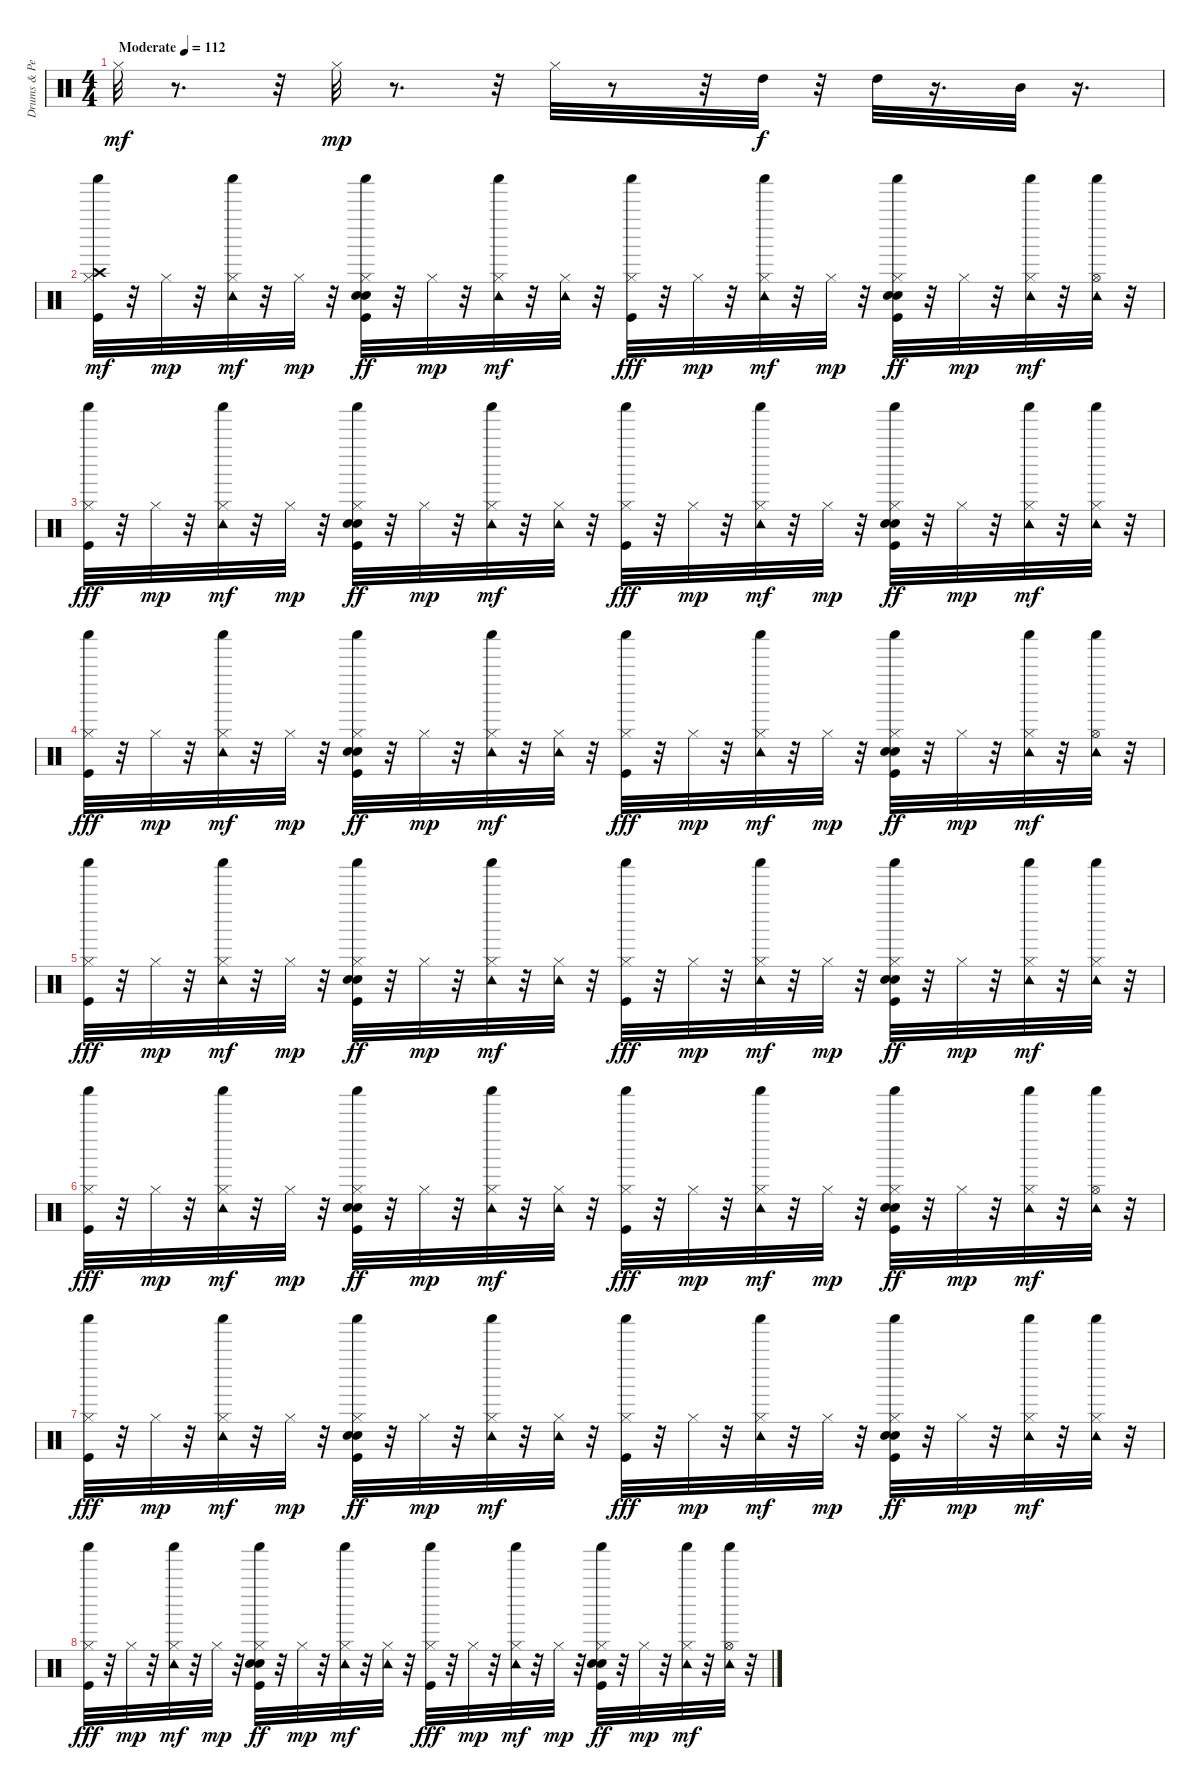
\track ("Drums & Percussion" "Drums & Pe") {instrument percussion}
\staff {score}
\articulation defaults
\ts (4 4)
\tempo (112 "Moderate")
\clef neutral
\ks c "Hi-Hat (closed)".32{dy mf}
r.8{d} r.32 "Hi-Hat (closed)".32{dy mp} r.8{d} r.32 "Hi-Hat (closed)".32 r.8 r.32 "High Tom (hit)".32{dy f} r.32 "High Tom (hit)".32 r.16{d} "Mid Tom (hit)".32 r.16{d} |
("Shaker (hit)" "Hi-Hat (closed)" "Crash high (hit)" "Kick (hit)").32{dy mf} r.32 "Hi-Hat (closed)".32{dy mp} r.32 ("Shaker (hit)" "Hi-Hat (closed)" "Tambourine (hit)").32{dy mf} r.32 "Hi-Hat (closed)".32{dy mp} r.32 ("Shaker (hit)" "Snare (hit) 2" "Hi-Hat (closed)" "Hand Clap (hit)" "Kick (hit)").32{dy ff} r.32 "Hi-Hat (closed)".32{dy mp} r.32 ("Shaker (hit)" "Hi-Hat (closed)" "Tambourine (hit)").32{dy mf} r.32 ("Hi-Hat (closed)" "Tambourine (hit)").32 r.32 ("Shaker (hit)" "Hi-Hat (closed)" "Kick (hit)").32{dy fff} r.32 "Hi-Hat (closed)".32{dy mp} r.32 ("Shaker (hit)" "Hi-Hat (closed)" "Tambourine (hit)").32{dy mf} r.32 "Hi-Hat (closed)".32{dy mp} r.32 ("Shaker (hit)" "Snare (hit) 2" "Hi-Hat (closed)" "Hand Clap (hit)" "Kick (hit)").32{dy ff} r.32 "Hi-Hat (closed)".32{dy mp} r.32 ("Shaker (hit)" "Hi-Hat (closed)" "Tambourine (hit)").32{dy mf} r.32 ("Hi-Hat (open)" "Shaker (hit)" "Tambourine (hit)").32 r.32 |
("Shaker (hit)" "Hi-Hat (closed)" "Kick (hit)").32{dy fff} r.32 "Hi-Hat (closed)".32{dy mp} r.32 ("Shaker (hit)" "Hi-Hat (closed)" "Tambourine (hit)").32{dy mf} r.32 "Hi-Hat (closed)".32{dy mp} r.32 ("Shaker (hit)" "Snare (hit) 2" "Hi-Hat (closed)" "Hand Clap (hit)" "Kick (hit)").32{dy ff} r.32 "Hi-Hat (closed)".32{dy mp} r.32 ("Shaker (hit)" "Hi-Hat (closed)" "Tambourine (hit)").32{dy mf} r.32 ("Hi-Hat (closed)" "Tambourine (hit)").32 r.32 ("Shaker (hit)" "Hi-Hat (closed)" "Kick (hit)").32{dy fff} r.32 "Hi-Hat (closed)".32{dy mp} r.32 ("Shaker (hit)" "Hi-Hat (closed)" "Tambourine (hit)").32{dy mf} r.32 "Hi-Hat (closed)".32{dy mp} r.32 ("Shaker (hit)" "Snare (hit) 2" "Hi-Hat (closed)" "Hand Clap (hit)" "Kick (hit)").32{dy ff} r.32 "Hi-Hat (closed)".32{dy mp} r.32 ("Shaker (hit)" "Hi-Hat (closed)" "Tambourine (hit)").32{dy mf} r.32 ("Shaker (hit)" "Hi-Hat (closed)" "Tambourine (hit)").32 r.32 |
("Shaker (hit)" "Hi-Hat (closed)" "Kick (hit)").32{dy fff} r.32 "Hi-Hat (closed)".32{dy mp} r.32 ("Shaker (hit)" "Hi-Hat (closed)" "Tambourine (hit)").32{dy mf} r.32 "Hi-Hat (closed)".32{dy mp} r.32 ("Shaker (hit)" "Snare (hit) 2" "Hi-Hat (closed)" "Hand Clap (hit)" "Kick (hit)").32{dy ff} r.32 "Hi-Hat (closed)".32{dy mp} r.32 ("Shaker (hit)" "Hi-Hat (closed)" "Tambourine (hit)").32{dy mf} r.32 ("Hi-Hat (closed)" "Tambourine (hit)").32 r.32 ("Shaker (hit)" "Hi-Hat (closed)" "Kick (hit)").32{dy fff} r.32 "Hi-Hat (closed)".32{dy mp} r.32 ("Shaker (hit)" "Hi-Hat (closed)" "Tambourine (hit)").32{dy mf} r.32 "Hi-Hat (closed)".32{dy mp} r.32 ("Shaker (hit)" "Snare (hit) 2" "Hi-Hat (closed)" "Hand Clap (hit)" "Kick (hit)").32{dy ff} r.32 "Hi-Hat (closed)".32{dy mp} r.32 ("Shaker (hit)" "Hi-Hat (closed)" "Tambourine (hit)").32{dy mf} r.32 ("Hi-Hat (open)" "Shaker (hit)" "Tambourine (hit)").32 r.32 |
("Shaker (hit)" "Hi-Hat (closed)" "Kick (hit)").32{dy fff} r.32 "Hi-Hat (closed)".32{dy mp} r.32 ("Shaker (hit)" "Hi-Hat (closed)" "Tambourine (hit)").32{dy mf} r.32 "Hi-Hat (closed)".32{dy mp} r.32 ("Shaker (hit)" "Snare (hit) 2" "Hi-Hat (closed)" "Hand Clap (hit)" "Kick (hit)").32{dy ff} r.32 "Hi-Hat (closed)".32{dy mp} r.32 ("Shaker (hit)" "Hi-Hat (closed)" "Tambourine (hit)").32{dy mf} r.32 ("Hi-Hat (closed)" "Tambourine (hit)").32 r.32 ("Shaker (hit)" "Hi-Hat (closed)" "Kick (hit)").32{dy fff} r.32 "Hi-Hat (closed)".32{dy mp} r.32 ("Shaker (hit)" "Hi-Hat (closed)" "Tambourine (hit)").32{dy mf} r.32 "Hi-Hat (closed)".32{dy mp} r.32 ("Shaker (hit)" "Snare (hit) 2" "Hi-Hat (closed)" "Hand Clap (hit)" "Kick (hit)").32{dy ff} r.32 "Hi-Hat (closed)".32{dy mp} r.32 ("Shaker (hit)" "Hi-Hat (closed)" "Tambourine (hit)").32{dy mf} r.32 ("Shaker (hit)" "Hi-Hat (closed)" "Tambourine (hit)").32 r.32 |
("Shaker (hit)" "Hi-Hat (closed)" "Kick (hit)").32{dy fff} r.32 "Hi-Hat (closed)".32{dy mp} r.32 ("Shaker (hit)" "Hi-Hat (closed)" "Tambourine (hit)").32{dy mf} r.32 "Hi-Hat (closed)".32{dy mp} r.32 ("Shaker (hit)" "Snare (hit) 2" "Hi-Hat (closed)" "Hand Clap (hit)" "Kick (hit)").32{dy ff} r.32 "Hi-Hat (closed)".32{dy mp} r.32 ("Shaker (hit)" "Hi-Hat (closed)" "Tambourine (hit)").32{dy mf} r.32 ("Hi-Hat (closed)" "Tambourine (hit)").32 r.32 ("Shaker (hit)" "Hi-Hat (closed)" "Kick (hit)").32{dy fff} r.32 "Hi-Hat (closed)".32{dy mp} r.32 ("Shaker (hit)" "Hi-Hat (closed)" "Tambourine (hit)").32{dy mf} r.32 "Hi-Hat (closed)".32{dy mp} r.32 ("Shaker (hit)" "Snare (hit) 2" "Hi-Hat (closed)" "Hand Clap (hit)" "Kick (hit)").32{dy ff} r.32 "Hi-Hat (closed)".32{dy mp} r.32 ("Shaker (hit)" "Hi-Hat (closed)" "Tambourine (hit)").32{dy mf} r.32 ("Hi-Hat (open)" "Shaker (hit)" "Tambourine (hit)").32 r.32 |
("Shaker (hit)" "Hi-Hat (closed)" "Kick (hit)").32{dy fff} r.32 "Hi-Hat (closed)".32{dy mp} r.32 ("Shaker (hit)" "Hi-Hat (closed)" "Tambourine (hit)").32{dy mf} r.32 "Hi-Hat (closed)".32{dy mp} r.32 ("Shaker (hit)" "Snare (hit) 2" "Hi-Hat (closed)" "Hand Clap (hit)" "Kick (hit)").32{dy ff} r.32 "Hi-Hat (closed)".32{dy mp} r.32 ("Shaker (hit)" "Hi-Hat (closed)" "Tambourine (hit)").32{dy mf} r.32 ("Hi-Hat (closed)" "Tambourine (hit)").32 r.32 ("Shaker (hit)" "Hi-Hat (closed)" "Kick (hit)").32{dy fff} r.32 "Hi-Hat (closed)".32{dy mp} r.32 ("Shaker (hit)" "Hi-Hat (closed)" "Tambourine (hit)").32{dy mf} r.32 "Hi-Hat (closed)".32{dy mp} r.32 ("Shaker (hit)" "Snare (hit) 2" "Hi-Hat (closed)" "Hand Clap (hit)" "Kick (hit)").32{dy ff} r.32 "Hi-Hat (closed)".32{dy mp} r.32 ("Shaker (hit)" "Hi-Hat (closed)" "Tambourine (hit)").32{dy mf} r.32 ("Shaker (hit)" "Hi-Hat (closed)" "Tambourine (hit)").32 r.32 |
("Shaker (hit)" "Hi-Hat (closed)" "Kick (hit)").32{dy fff} r.32 "Hi-Hat (closed)".32{dy mp} r.32 ("Shaker (hit)" "Hi-Hat (closed)" "Tambourine (hit)").32{dy mf} r.32 "Hi-Hat (closed)".32{dy mp} r.32 ("Shaker (hit)" "Snare (hit) 2" "Hi-Hat (closed)" "Hand Clap (hit)" "Kick (hit)").32{dy ff} r.32 "Hi-Hat (closed)".32{dy mp} r.32 ("Shaker (hit)" "Hi-Hat (closed)" "Tambourine (hit)").32{dy mf} r.32 ("Hi-Hat (closed)" "Tambourine (hit)").32 r.32 ("Shaker (hit)" "Hi-Hat (closed)" "Kick (hit)").32{dy fff} r.32 "Hi-Hat (closed)".32{dy mp} r.32 ("Shaker (hit)" "Hi-Hat (closed)" "Tambourine (hit)").32{dy mf} r.32 "Hi-Hat (closed)".32{dy mp} r.32 ("Shaker (hit)" "Snare (hit) 2" "Hi-Hat (closed)" "Hand Clap (hit)" "Kick (hit)").32{dy ff} r.32 "Hi-Hat (closed)".32{dy mp} r.32 ("Shaker (hit)" "Hi-Hat (closed)" "Tambourine (hit)").32{dy mf} r.32 ("Hi-Hat (open)" "Shaker (hit)" "Tambourine (hit)").32 r.32
